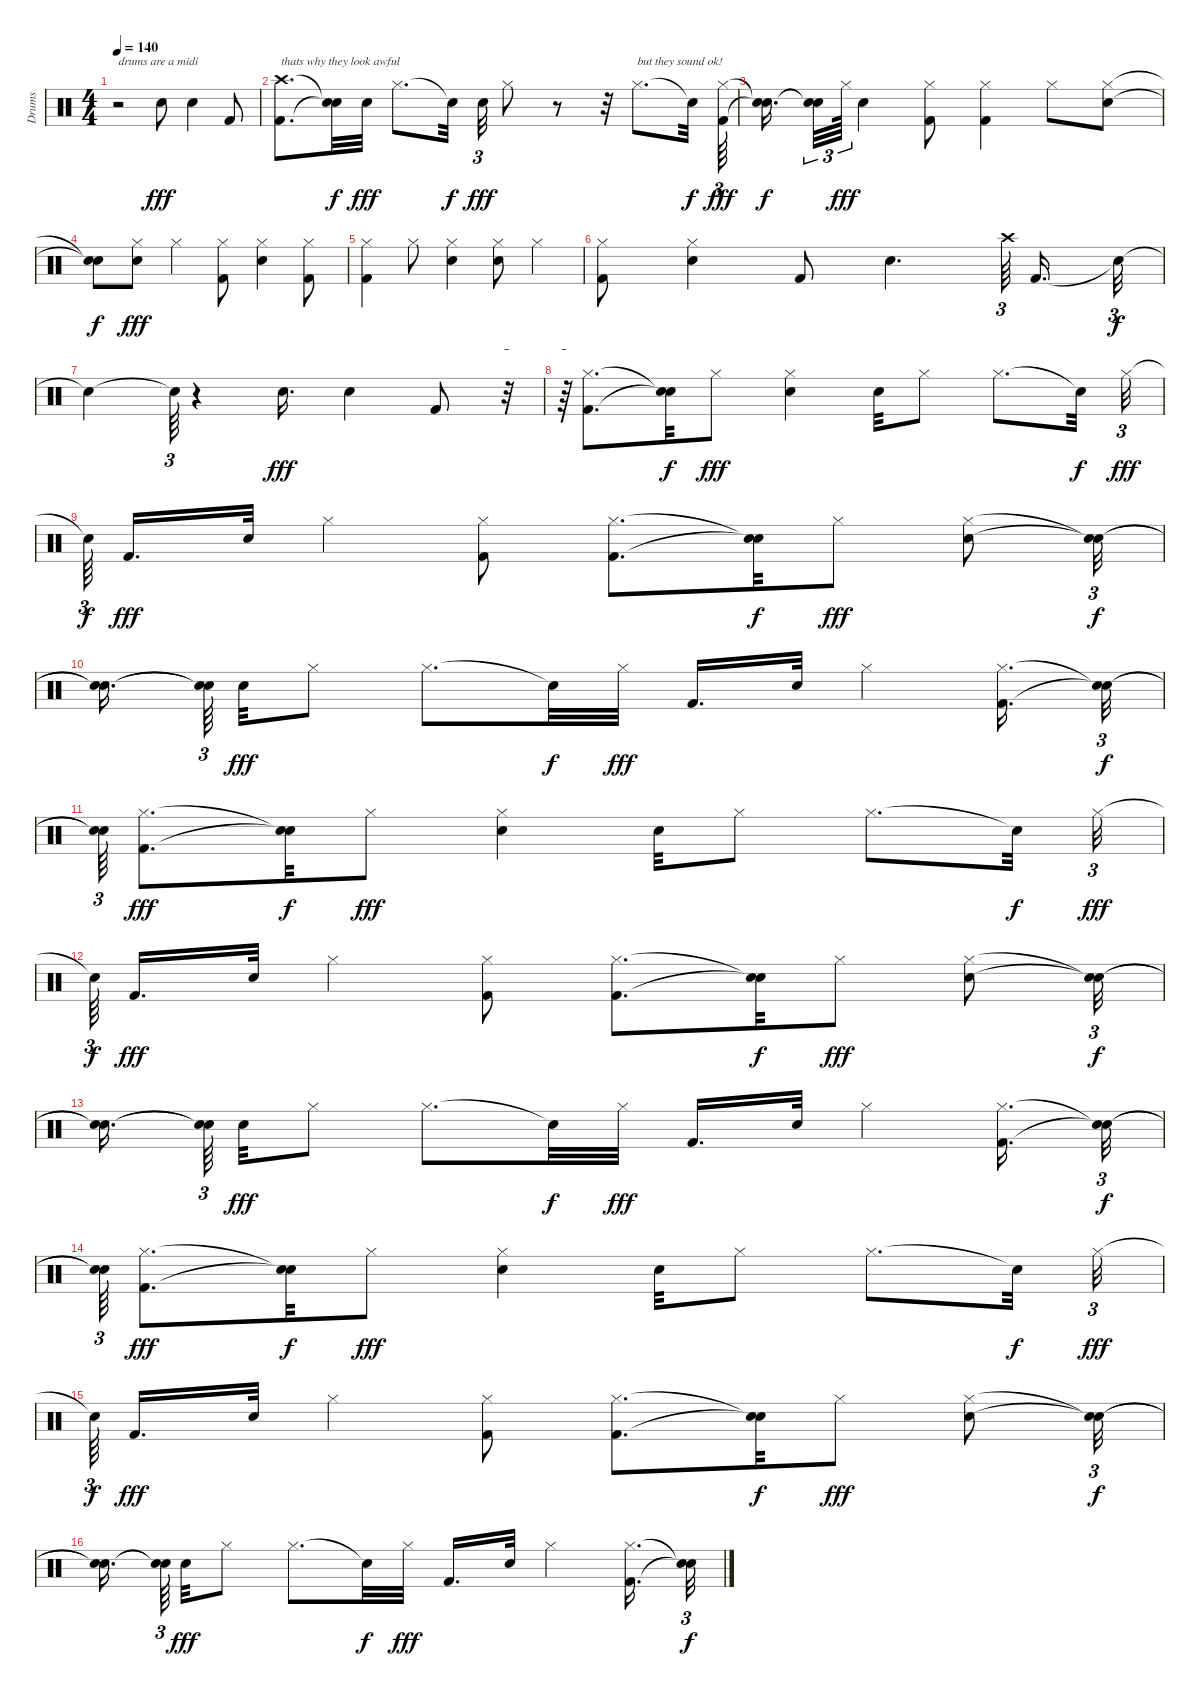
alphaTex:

\track ("Drums" "Drums") {instrument percussion}
\staff {score}
\articulation defaults
\ts (4 4)
\tempo 140
\clef neutral
\ks c
r.2{txt "drums are a midi" dy fff} "Snare (hit) 2".8 "Electric Snare (hit)".4 "Kick (hit) 2".8 |
("Crash high (hit)" "Kick (hit) 2").8{d txt "thats why they look awful"} ("Snare (hit)"{t} "Snare (hit)"{t}).32{dy f} "Snare (hit) 2".32{dy fff} "Hi-Hat (closed)".8{d} "Snare (hit)"{t}.32{dy f} "Snare (hit) 2".32{tu (3 2) dy fff} "Hi-Hat (closed)".8 r.8 r.32 "Hi-Hat (closed)".8{d txt "but they sound ok!"} "Snare (hit)"{t}.32{dy f} ("Hi-Hat (closed)" "Kick (hit) 2").64{tu (3 2) dy fff} |
("Snare (hit)"{t} "Snare (hit)"{t}).16{d dy f} ("Snare (hit)"{t} "Snare (hit)"{t}).32{tu (3 2)} "Hi-Hat (closed)".64{tu (3 2) dy fff} "Snare (hit) 2".4 ("Hi-Hat (closed)" "Kick (hit) 2").8 ("Kick (hit) 2" "Hi-Hat (closed)").4 "Hi-Hat (closed)".8 ("Snare (hit) 2" "Hi-Hat (closed)").8 |
("Snare (hit)"{t} "Snare (hit)"{t}).8{dy f} ("Snare (hit) 2" "Hi-Hat (closed)").8{dy fff} "Hi-Hat (closed)".4 ("Hi-Hat (closed)" "Kick (hit) 2").8 ("Electric Snare (hit)" "Hi-Hat (closed)").4 ("Hi-Hat (closed)" "Kick (hit) 2").8 |
("Hi-Hat (closed)" "Kick (hit) 2").4 "Hi-Hat (closed)".8 ("Snare (hit) 2" "Hi-Hat (closed)").4 ("Snare (hit) 2" "Hi-Hat (closed)").8 "Hi-Hat (closed)".4 |
("Hi-Hat (closed)" "Kick (hit) 2").8 ("Electric Snare (hit)" "Hi-Hat (closed)").4 "Kick (hit) 2".8 "Snare (hit) 2".4{d} "Crash high (hit)".64{tu (3 2)} "Kick (hit) 2".16{d} "Snare (hit)"{t}.32{tu (3 2) dy f} |
"Snare (hit)"{t}.4 "Snare (hit)"{t}.64{tu (3 2)} r.4 "Electric Snare (hit)".16{d dy fff} "Snare (hit) 2".4 "Kick (hit) 2".8 r.32{tu (3 2)} |
r.64{tu (3 2)} ("Kick (hit) 2" "Hi-Hat (closed)").8{d} ("Snare (hit)"{t} "Snare (hit)"{t}).32{dy f} "Hi-Hat (closed)".8{dy fff} ("Snare (hit) 2" "Hi-Hat (closed)").4 "Snare (hit) 2".32 "Hi-Hat (closed)".8 "Hi-Hat (closed)".8{d} "Snare (hit)"{t}.32{dy f} "Hi-Hat (closed)".32{tu (3 2) dy fff} |
"Snare (hit)"{t}.64{tu (3 2) dy f} "Kick (hit) 2".16{d dy fff} "Electric Snare (hit)".32 "Hi-Hat (closed)".4 ("Kick (hit) 2" "Hi-Hat (closed)").8 ("Kick (hit) 2" "Hi-Hat (closed)").8{d} ("Snare (hit)"{t} "Snare (hit)"{t}).32{dy f} "Hi-Hat (closed)".8{dy fff} ("Snare (hit) 2" "Hi-Hat (closed)").8 ("Snare (hit)"{t} "Snare (hit)"{t}).32{tu (3 2) dy f} |
("Snare (hit)"{t} "Snare (hit)"{t}).16{d} ("Snare (hit)"{t} "Snare (hit)"{t}).64{tu (3 2)} "Snare (hit) 2".32{dy fff} "Hi-Hat (closed)".8 "Hi-Hat (closed)".8{d} "Snare (hit)"{t}.32{dy f} "Hi-Hat (closed)".32{dy fff} "Kick (hit) 2".16{d} "Electric Snare (hit)".32 "Hi-Hat (closed)".4 ("Hi-Hat (closed)" "Kick (hit) 2").16{d} ("Snare (hit)"{t} "Snare (hit)"{t}).32{tu (3 2) dy f} |
("Snare (hit)"{t} "Snare (hit)"{t}).64{tu (3 2)} ("Kick (hit) 2" "Hi-Hat (closed)").8{d dy fff} ("Snare (hit)"{t} "Snare (hit)"{t}).32{dy f} "Hi-Hat (closed)".8{dy fff} ("Snare (hit) 2" "Hi-Hat (closed)").4 "Snare (hit) 2".32 "Hi-Hat (closed)".8 "Hi-Hat (closed)".8{d} "Snare (hit)"{t}.32{dy f} "Hi-Hat (closed)".32{tu (3 2) dy fff} |
"Snare (hit)"{t}.64{tu (3 2) dy f} "Kick (hit) 2".16{d dy fff} "Electric Snare (hit)".32 "Hi-Hat (closed)".4 ("Kick (hit) 2" "Hi-Hat (closed)").8 ("Hi-Hat (closed)" "Kick (hit) 2").8{d} ("Snare (hit)"{t} "Snare (hit)"{t}).32{dy f} "Hi-Hat (closed)".8{dy fff} ("Snare (hit) 2" "Hi-Hat (closed)").8 ("Snare (hit)"{t} "Snare (hit)"{t}).32{tu (3 2) dy f} |
("Snare (hit)"{t} "Snare (hit)"{t}).16{d} ("Snare (hit)"{t} "Snare (hit)"{t}).64{tu (3 2)} "Snare (hit) 2".32{dy fff} "Hi-Hat (closed)".8 "Hi-Hat (closed)".8{d} "Snare (hit)"{t}.32{dy f} "Hi-Hat (closed)".32{dy fff} "Kick (hit) 2".16{d} "Electric Snare (hit)".32 "Hi-Hat (closed)".4 ("Hi-Hat (closed)" "Kick (hit) 2").16{d} ("Snare (hit)"{t} "Snare (hit)"{t}).32{tu (3 2) dy f} |
("Snare (hit)"{t} "Snare (hit)"{t}).64{tu (3 2)} ("Kick (hit) 2" "Hi-Hat (closed)").8{d dy fff} ("Snare (hit)"{t} "Snare (hit)"{t}).32{dy f} "Hi-Hat (closed)".8{dy fff} ("Snare (hit) 2" "Hi-Hat (closed)").4 "Snare (hit) 2".32 "Hi-Hat (closed)".8 "Hi-Hat (closed)".8{d} "Snare (hit)"{t}.32{dy f} "Hi-Hat (closed)".32{tu (3 2) dy fff} |
"Snare (hit)"{t}.64{tu (3 2) dy f} "Kick (hit) 2".16{d dy fff} "Electric Snare (hit)".32 "Hi-Hat (closed)".4 ("Kick (hit) 2" "Hi-Hat (closed)").8 ("Hi-Hat (closed)" "Kick (hit) 2").8{d} ("Snare (hit)"{t} "Snare (hit)"{t}).32{dy f} "Hi-Hat (closed)".8{dy fff} ("Snare (hit) 2" "Hi-Hat (closed)").8 ("Snare (hit)"{t} "Snare (hit)"{t}).32{tu (3 2) dy f} |
("Snare (hit)"{t} "Snare (hit)"{t}).16{d} ("Snare (hit)"{t} "Snare (hit)"{t}).64{tu (3 2)} "Snare (hit) 2".32{dy fff} "Hi-Hat (closed)".8 "Hi-Hat (closed)".8{d} "Snare (hit)"{t}.32{dy f} "Hi-Hat (closed)".32{dy fff} "Kick (hit) 2".16{d} "Electric Snare (hit)".32 "Hi-Hat (closed)".4 ("Hi-Hat (closed)" "Kick (hit) 2").16{d} ("Snare (hit)"{t} "Snare (hit)"{t}).32{tu (3 2) dy f}
